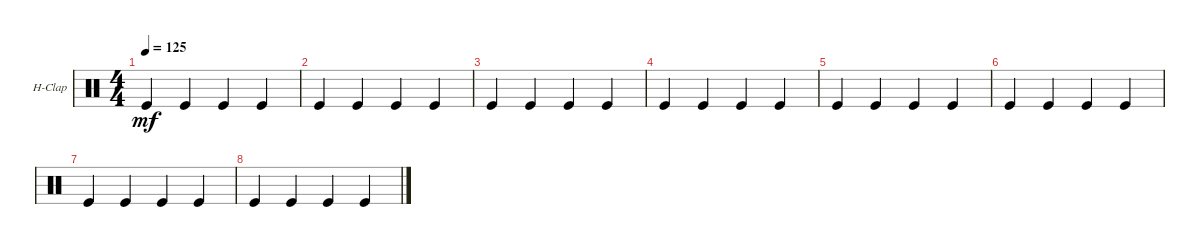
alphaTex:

\bracketExtendMode groupsimilarinstruments
\firstSystemTrackNameOrientation horizontal
\otherSystemsTrackNameOrientation horizontal
\track ("Hand Clap" "H-Clap") {instrument percussion}
\staff {score}
\articulation defaults
\ts (4 4)
\tempo 125
\clef neutral
\ks c "Kick (hit)".4{dy mf} "Kick (hit)".4 "Kick (hit)".4 "Kick (hit)".4
|
"Kick (hit)".4 "Kick (hit)".4 "Kick (hit)".4 "Kick (hit)".4 |
"Kick (hit)".4 "Kick (hit)".4 "Kick (hit)".4 "Kick (hit)".4 |
"Kick (hit)".4 "Kick (hit)".4 "Kick (hit)".4 "Kick (hit)".4 |
"Kick (hit)".4 "Kick (hit)".4 "Kick (hit)".4 "Kick (hit)".4 |
"Kick (hit)".4 "Kick (hit)".4 "Kick (hit)".4 "Kick (hit)".4 |
"Kick (hit)".4 "Kick (hit)".4 "Kick (hit)".4 "Kick (hit)".4 |
"Kick (hit)".4 "Kick (hit)".4 "Kick (hit)".4 "Kick (hit)".4
